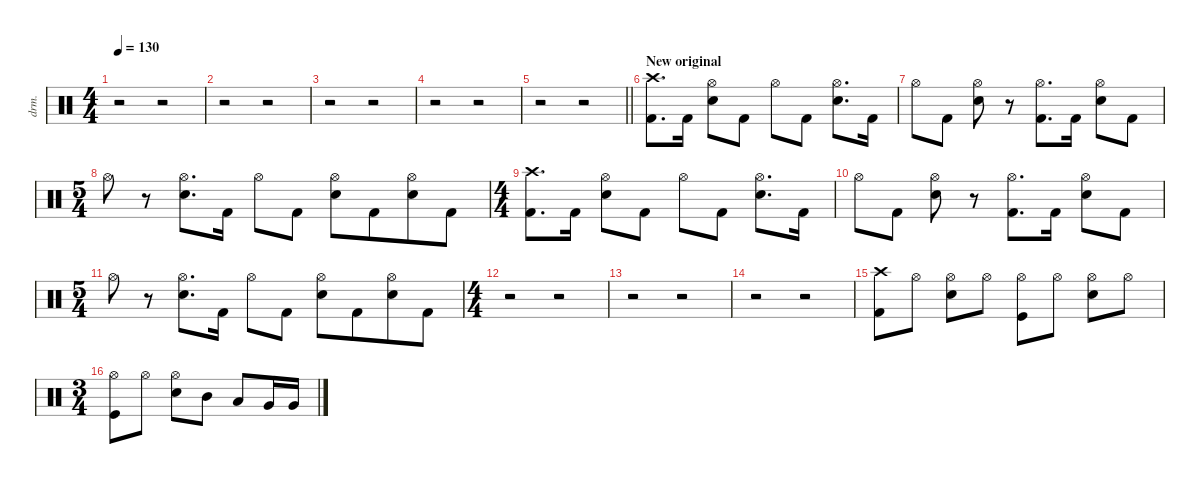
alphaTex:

\defaultSystemsLayout 4
\hideDynamics
\bracketExtendMode nobrackets
\otherSystemsTrackNameOrientation horizontal
\track ("Manouche" "drm.") {instrument percussion}
\staff {score}
\articulation defaults
\ts (4 4)
\tempo 130
\clef neutral
\ks c
r.2{dy ff} r.2 |
r.2 r.2 |
r.2 r.2 |
r.2 r.2 |
\barLineRight lightlight
r.2 r.2 |
\section ("" "New original")
("Crash high (hit)" "Kick (hit) 2").8{d dy f} "Kick (hit) 2".16 ("Hi-Hat (open)" "Snare (hit) 2").8 "Kick (hit) 2".8 "Hi-Hat (open)".8 "Kick (hit) 2".8 ("Hi-Hat (open)" "Snare (hit) 2").8{d} "Kick (hit) 2".16 |
"Hi-Hat (open)".8 "Kick (hit) 2".8 ("Hi-Hat (open)" "Snare (hit) 2").8 r.8 ("Hi-Hat (open)" "Kick (hit) 2").8{d} "Kick (hit) 2".16 ("Hi-Hat (open)" "Snare (hit) 2").8 "Kick (hit) 2".8 |
\ts (5 4)
\beaming (8 2 2 2 4)
"Hi-Hat (open)".8 r.8 ("Hi-Hat (open)" "Snare (hit) 2").8{d} "Kick (hit) 2".16 "Hi-Hat (open)".8 "Kick (hit) 2".8 ("Hi-Hat (open)" "Snare (hit) 2").8 "Kick (hit) 2".8 ("Hi-Hat (open)" "Snare (hit) 2").8 "Kick (hit) 2".8 |
\ts (4 4)
\beaming (8 2 2 2 2)
("Crash high (hit)" "Kick (hit) 2").8{d} "Kick (hit) 2".16 ("Hi-Hat (open)" "Snare (hit) 2").8 "Kick (hit) 2".8 "Hi-Hat (open)".8 "Kick (hit) 2".8 ("Hi-Hat (open)" "Snare (hit) 2").8{d} "Kick (hit) 2".16 |
"Hi-Hat (open)".8 "Kick (hit) 2".8 ("Hi-Hat (open)" "Snare (hit) 2").8 r.8 ("Hi-Hat (open)" "Kick (hit) 2").8{d} "Kick (hit) 2".16 ("Hi-Hat (open)" "Snare (hit) 2").8 "Kick (hit) 2".8 |
\ts (5 4)
\beaming (8 2 2 2 4)
"Hi-Hat (open)".8 r.8 ("Hi-Hat (open)" "Snare (hit) 2").8{d} "Kick (hit) 2".16 "Hi-Hat (open)".8 "Kick (hit) 2".8 ("Hi-Hat (open)" "Snare (hit) 2").8 "Kick (hit) 2".8 ("Hi-Hat (open)" "Snare (hit) 2").8 "Kick (hit) 2".8 |
\ts (4 4)
\beaming (8 2 2 2 2)
r.2 r.2 |
r.2 r.2 |
r.2 r.2 |
("Crash high (hit)" "Kick (hit) 2").8{dy fff} "Hi-Hat (open)".8{dy mp} ("Hi-Hat (open)" "Snare (hit) 2").8{dy f} "Hi-Hat (open)".8{dy mp} ("Hi-Hat (open)" "Kick (hit)").8{dy f} "Hi-Hat (open)".8{dy mp} ("Hi-Hat (open)" "Snare (hit) 2").8{dy f} "Hi-Hat (open)".8{dy mp} |
\ts (3 4)
\beaming (8 2 2 2)
("Hi-Hat (open)" "Kick (hit)").8{dy f} "Hi-Hat (open)".8{dy mp} ("Hi-Hat (open)" "Snare (hit) 2").8{dy f} "Mid Tom (hit)".8 "Low Tom (hit)".8 "Very Low Tom (hit)".16 "Very Low Tom (hit)".16
